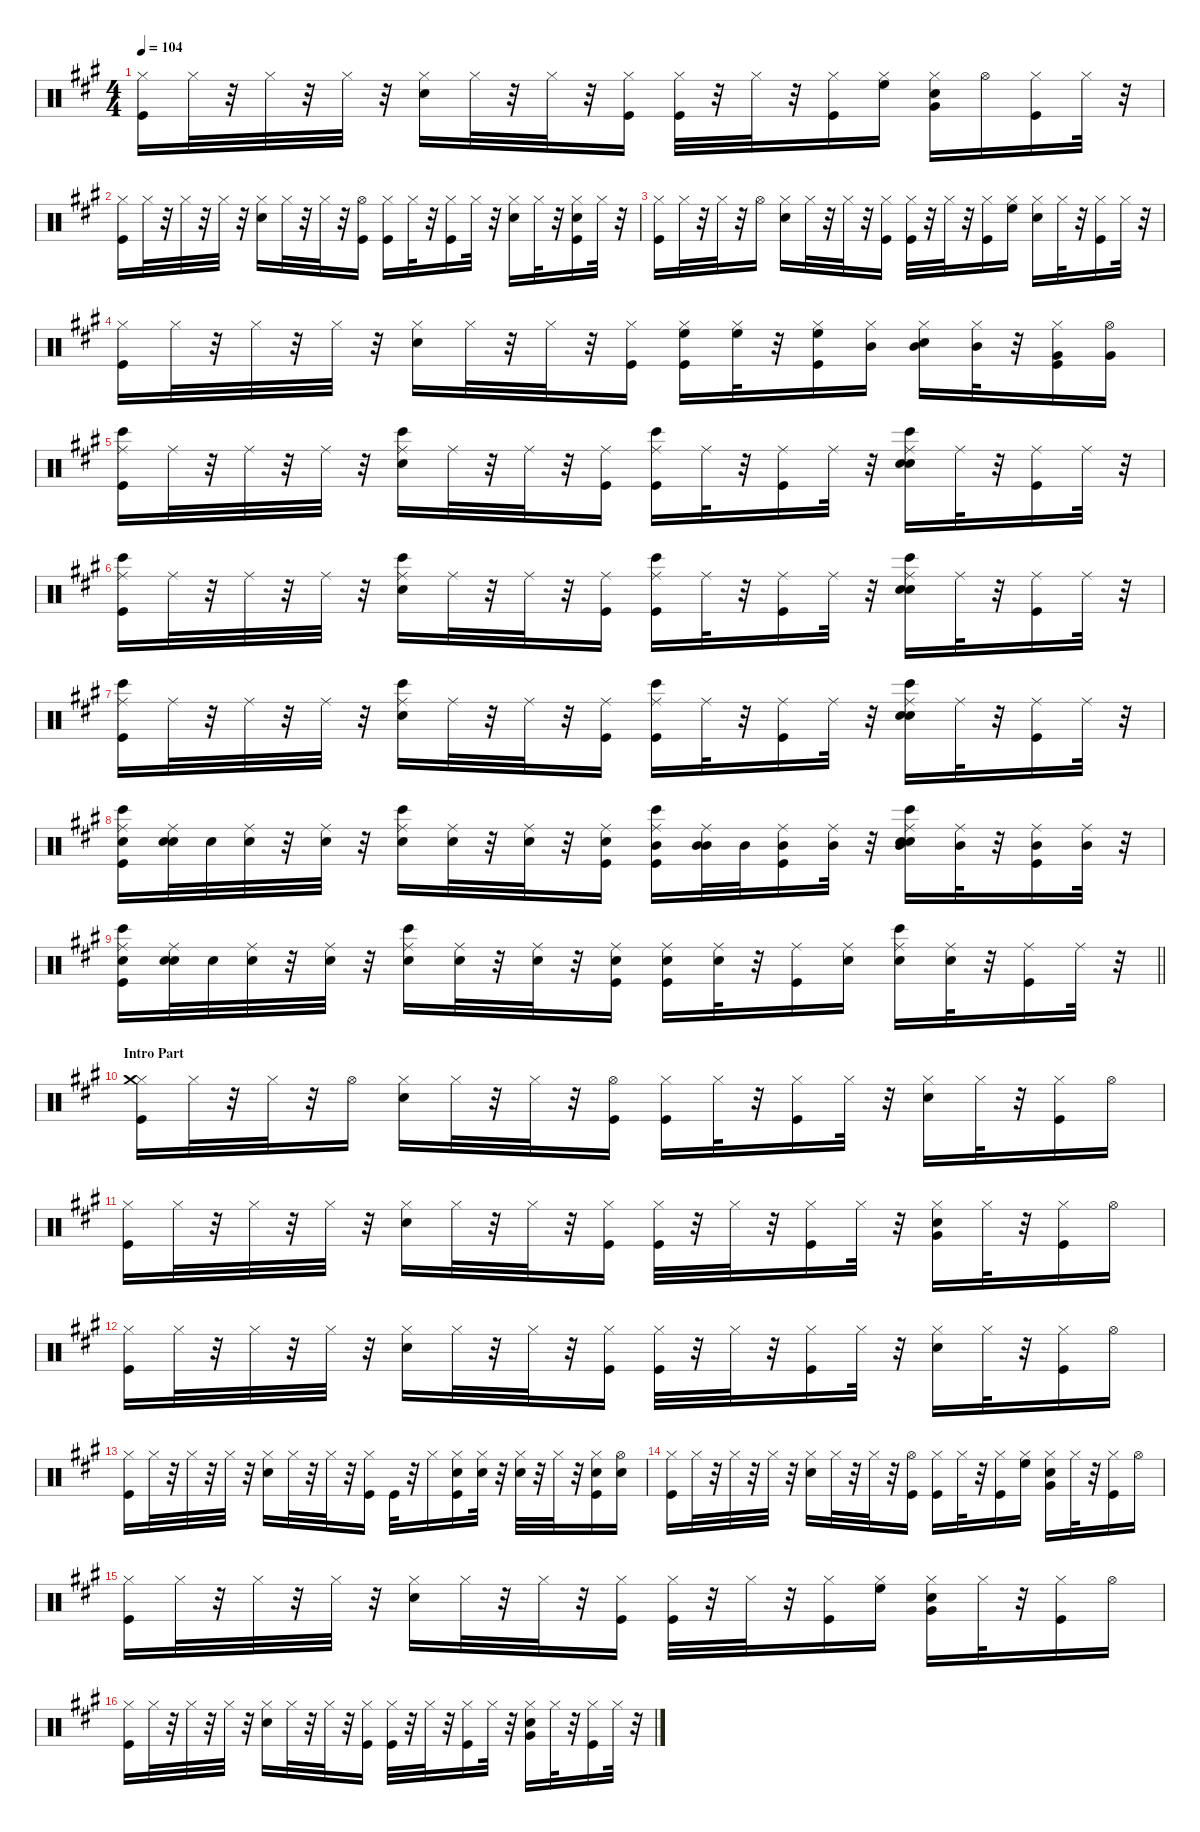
\defaultSystemsLayout 4
\hideDynamics
\bracketExtendMode nobrackets
\singleTrackTrackNamePolicy hidden
\multiTrackTrackNamePolicy hidden
\otherSystemsTrackNameOrientation horizontal
\track ("Drums   " "drm.") {instrument percussion}
\staff {score}
\articulation defaults
\ts (4 4)
\tempo 104
\clef neutral
\ks a
("Kick (hit)"{acc forcenatural} "Hi-Hat (closed)"{acc forcenatural}).16{dy f beam Down} "Hi-Hat (closed)"{acc forcenatural}.32{dy mp beam Down} r.32{beam Down} "Hi-Hat (closed)"{acc forcenatural}.32{dy f beam Down} r.32{beam Down} "Hi-Hat (closed)"{acc forcenatural}.32{beam Down} r.32{beam Down} ("Snare (hit) 2"{acc forcenatural} "Hi-Hat (closed)"{acc forcenatural}).16{dy fff beam Down} "Hi-Hat (closed)"{acc forcenatural}.32{dy mp beam Down} r.32{beam Down} "Hi-Hat (closed)"{acc forcenatural}.32{dy f beam Down} r.32{beam Down} ("Kick (hit)"{acc forcenatural} "Hi-Hat (closed)"{acc forcenatural}).16{dy mf beam Down} ("Kick (hit)"{acc forcenatural} "Hi-Hat (closed)"{acc forcenatural}).32{dy f beam Down} r.32{beam Down} "Hi-Hat (closed)"{acc forcenatural}.32{dy mp beam Down} r.32{beam Down} ("Kick (hit)"{acc forcenatural} "Hi-Hat (closed)"{acc forcenatural}).16{dy f beam Down} ("Hi-Hat (closed)"{acc forcenatural} "High Floor Tom (hit)"{acc forcenatural}).16{beam Down} ("Snare (hit) 2"{acc forcenatural} "Hi-Hat (closed)"{acc forcenatural} "Very Low Tom (hit)"{acc forcenatural}).16{dy fff beam Down} "Hi-Hat (open)"{acc forcenatural}.16{dy mp beam Down} ("Kick (hit)"{acc forcenatural} "Hi-Hat (closed)"{acc forcenatural}).16{dy f beam Down} "Hi-Hat (closed)"{acc forcenatural}.32{beam Down} r.32{beam Down} |
("Kick (hit)"{acc forcenatural} "Hi-Hat (closed)"{acc forcenatural}).16{beam Down} "Hi-Hat (closed)"{acc forcenatural}.32{dy mp beam Down} r.32{beam Down} "Hi-Hat (closed)"{acc forcenatural}.32{dy f beam Down} r.32{beam Down} "Hi-Hat (closed)"{acc forcenatural}.32{beam Down} r.32{beam Down} ("Snare (hit) 2"{acc forcenatural} "Hi-Hat (closed)"{acc forcenatural}).16{dy fff beam Down} "Hi-Hat (closed)"{acc forcenatural}.32{dy mp beam Down} r.32{beam Down} "Hi-Hat (closed)"{acc forcenatural}.32{dy f beam Down} r.32{beam Down} ("Kick (hit)"{acc forcenatural} "Hi-Hat (open)"{acc forcenatural}).16{dy mf beam Down} ("Kick (hit)"{acc forcenatural} "Hi-Hat (closed)"{acc forcenatural}).16{dy f beam Down} "Hi-Hat (closed)"{acc forcenatural}.32{dy mp beam Down} r.32{beam Down} ("Kick (hit)"{acc forcenatural} "Hi-Hat (closed)"{acc forcenatural}).16{dy f beam Down} "Hi-Hat (closed)"{acc forcenatural}.32{beam Down} r.32{beam Down} ("Snare (hit) 2"{acc forcenatural} "Hi-Hat (closed)"{acc forcenatural}).16{dy fff beam Down} "Hi-Hat (closed)"{acc forcenatural}.32{dy mp beam Down} r.32{beam Down} ("Kick (hit)"{acc forcenatural} "Snare (hit) 2"{acc forcenatural} "Hi-Hat (closed)"{acc forcenatural}).16{dy f beam Down} "Hi-Hat (closed)"{acc forcenatural}.32{beam Down} r.32{beam Down} |
("Kick (hit)"{acc forcenatural} "Hi-Hat (closed)"{acc forcenatural}).16{beam Down} "Hi-Hat (closed)"{acc forcenatural}.32{dy mp beam Down} r.32{beam Down} "Hi-Hat (closed)"{acc forcenatural}.32{dy f beam Down} r.32{beam Down} "Hi-Hat (open)"{acc forcenatural}.16{beam Down} ("Snare (hit) 2"{acc forcenatural} "Hi-Hat (closed)"{acc forcenatural}).16{dy fff beam Down} "Hi-Hat (closed)"{acc forcenatural}.32{dy mp beam Down} r.32{beam Down} "Hi-Hat (closed)"{acc forcenatural}.32{dy f beam Down} r.32{beam Down} ("Kick (hit)"{acc forcenatural} "Hi-Hat (closed)"{acc forcenatural}).16{dy mf beam Down} ("Kick (hit)"{acc forcenatural} "Hi-Hat (closed)"{acc forcenatural}).32{dy f beam Down} r.32{beam Down} "Hi-Hat (closed)"{acc forcenatural}.32{dy mp beam Down} r.32{beam Down} ("Kick (hit)"{acc forcenatural} "Hi-Hat (closed)"{acc forcenatural}).16{dy f beam Down} ("Hi-Hat (closed)"{acc forcenatural} "High Floor Tom (hit)"{acc forcenatural}).16{beam Down} ("Snare (hit) 2"{acc forcenatural} "Hi-Hat (closed)"{acc forcenatural}).16{dy fff beam Down} "Hi-Hat (closed)"{acc forcenatural}.32{dy mp beam Down} r.32{beam Down} ("Kick (hit)"{acc forcenatural} "Hi-Hat (closed)"{acc forcenatural}).16{dy f beam Down} "Hi-Hat (closed)"{acc forcenatural}.32{beam Down} r.32{beam Down} |
("Kick (hit)"{acc forcenatural} "Hi-Hat (closed)"{acc forcenatural}).16{beam Down} "Hi-Hat (closed)"{acc forcenatural}.32{dy mp beam Down} r.32{beam Down} "Hi-Hat (closed)"{acc forcenatural}.32{dy f beam Down} r.32{beam Down} "Hi-Hat (closed)"{acc forcenatural}.32{beam Down} r.32{beam Down} ("Snare (hit) 2"{acc forcenatural} "Hi-Hat (closed)"{acc forcenatural}).16{dy fff beam Down} "Hi-Hat (closed)"{acc forcenatural}.32{dy mp beam Down} r.32{beam Down} "Hi-Hat (closed)"{acc forcenatural}.32{dy f beam Down} r.32{beam Down} ("Kick (hit)"{acc forcenatural} "Hi-Hat (closed)"{acc forcenatural}).16{dy mf beam Down} ("Kick (hit)"{acc forcenatural} "Hi-Hat (closed)"{acc forcenatural} "High Floor Tom (hit)"{acc forcenatural}).16{dy f beam Down} ("Hi-Hat (closed)"{acc forcenatural} "High Floor Tom (hit)"{acc forcenatural}).32{dy mp beam Down} r.32{beam Down} ("Kick (hit)"{acc forcenatural} "Hi-Hat (closed)"{acc forcenatural} "High Floor Tom (hit)"{acc forcenatural}).16{dy f beam Down} ("Hi-Hat (closed)"{acc forcenatural} "Mid Tom (hit)"{acc forcenatural}).16{beam Down} ("Snare (hit) 2"{acc forcenatural} "Hi-Hat (closed)"{acc forcenatural} "Mid Tom (hit)"{acc forcenatural}).16{dy fff beam Down} ("Hi-Hat (closed)"{acc forcenatural} "Mid Tom (hit)"{acc forcenatural}).32{dy mp beam Down} r.32{beam Down} ("Kick (hit)"{acc forcenatural} "Hi-Hat (closed)"{acc forcenatural} "Very Low Tom (hit)"{acc forcenatural}).16{dy f beam Down} ("Very Low Tom (hit)"{acc forcenatural} "Hi-Hat (open)"{acc forcenatural}).16{beam Down} |
("Kick (hit)"{acc forcenatural} "Ride (middle)"{acc forcenatural} "Bongo High (hit)"{acc forcenatural}).16{beam Down} "Ride (middle)"{acc forcenatural}.32{dy mp beam Down} r.32{beam Down} "Ride (middle)"{acc forcenatural}.32{beam Down} r.32{beam Down} "Ride (middle)"{acc forcenatural}.32{beam Down} r.32{beam Down} ("Snare (hit) 2"{acc forcenatural} "Ride (middle)"{acc forcenatural} "Bongo High (hit)"{acc forcenatural}).16{dy fff beam Down} "Ride (middle)"{acc forcenatural}.32{dy mp beam Down} r.32{beam Down} "Ride (middle)"{acc forcenatural}.32{beam Down} r.32{beam Down} ("Kick (hit)"{acc forcenatural} "Ride (middle)"{acc forcenatural}).16{dy mf beam Down} ("Kick (hit)"{acc forcenatural} "Ride (middle)"{acc forcenatural} "Bongo High (hit)"{acc forcenatural}).16{dy f beam Down} "Ride (middle)"{acc forcenatural}.32{dy mp beam Down} r.32{beam Down} ("Kick (hit)"{acc forcenatural} "Ride (middle)"{acc forcenatural}).16{dy f beam Down} "Ride (middle)"{acc forcenatural}.32{dy mp beam Down} r.32{beam Down} ("Hand Clap (hit)"{acc forcenatural} "Snare (hit) 2"{acc forcenatural} "Ride (middle)"{acc forcenatural} "Bongo High (hit)"{acc forcenatural}).16{dy f beam Down} "Ride (middle)"{acc forcenatural}.32{dy mp beam Down} r.32{beam Down} ("Kick (hit)"{acc forcenatural} "Ride (middle)"{acc forcenatural}).16{dy f beam Down} "Ride (middle)"{acc forcenatural}.32{dy mp beam Down} r.32{beam Down} |
("Kick (hit)"{acc forcenatural} "Ride (middle)"{acc forcenatural} "Bongo High (hit)"{acc forcenatural}).16{dy f beam Down} "Ride (middle)"{acc forcenatural}.32{dy mp beam Down} r.32{beam Down} "Ride (middle)"{acc forcenatural}.32{beam Down} r.32{beam Down} "Ride (middle)"{acc forcenatural}.32{beam Down} r.32{beam Down} ("Snare (hit) 2"{acc forcenatural} "Ride (middle)"{acc forcenatural} "Bongo High (hit)"{acc forcenatural}).16{dy fff beam Down} "Ride (middle)"{acc forcenatural}.32{dy mp beam Down} r.32{beam Down} "Ride (middle)"{acc forcenatural}.32{beam Down} r.32{beam Down} ("Kick (hit)"{acc forcenatural} "Ride (middle)"{acc forcenatural}).16{dy mf beam Down} ("Kick (hit)"{acc forcenatural} "Ride (middle)"{acc forcenatural} "Bongo High (hit)"{acc forcenatural}).16{dy f beam Down} "Ride (middle)"{acc forcenatural}.32{dy mp beam Down} r.32{beam Down} ("Kick (hit)"{acc forcenatural} "Ride (middle)"{acc forcenatural}).16{dy f beam Down} "Ride (middle)"{acc forcenatural}.32{dy mp beam Down} r.32{beam Down} ("Hand Clap (hit)"{acc forcenatural} "Snare (hit) 2"{acc forcenatural} "Ride (middle)"{acc forcenatural} "Bongo High (hit)"{acc forcenatural}).16{dy f beam Down} "Ride (middle)"{acc forcenatural}.32{dy mp beam Down} r.32{beam Down} ("Kick (hit)"{acc forcenatural} "Ride (middle)"{acc forcenatural}).16{dy f beam Down} "Ride (middle)"{acc forcenatural}.32{dy mp beam Down} r.32{beam Down} |
("Kick (hit)"{acc forcenatural} "Ride (middle)"{acc forcenatural} "Bongo High (hit)"{acc forcenatural}).16{dy f beam Down} "Ride (middle)"{acc forcenatural}.32{dy mp beam Down} r.32{beam Down} "Ride (middle)"{acc forcenatural}.32{beam Down} r.32{beam Down} "Ride (middle)"{acc forcenatural}.32{beam Down} r.32{beam Down} ("Snare (hit) 2"{acc forcenatural} "Ride (middle)"{acc forcenatural} "Bongo High (hit)"{acc forcenatural}).16{dy fff beam Down} "Ride (middle)"{acc forcenatural}.32{dy mp beam Down} r.32{beam Down} "Ride (middle)"{acc forcenatural}.32{beam Down} r.32{beam Down} ("Kick (hit)"{acc forcenatural} "Ride (middle)"{acc forcenatural}).16{dy mf beam Down} ("Kick (hit)"{acc forcenatural} "Ride (middle)"{acc forcenatural} "Bongo High (hit)"{acc forcenatural}).16{dy f beam Down} "Ride (middle)"{acc forcenatural}.32{dy mp beam Down} r.32{beam Down} ("Kick (hit)"{acc forcenatural} "Ride (middle)"{acc forcenatural}).16{dy f beam Down} "Ride (middle)"{acc forcenatural}.32{dy mp beam Down} r.32{beam Down} ("Hand Clap (hit)"{acc forcenatural} "Snare (hit) 2"{acc forcenatural} "Ride (middle)"{acc forcenatural} "Bongo High (hit)"{acc forcenatural}).16{dy f beam Down} "Ride (middle)"{acc forcenatural}.32{dy mp beam Down} r.32{beam Down} ("Kick (hit)"{acc forcenatural} "Ride (middle)"{acc forcenatural}).16{dy f beam Down} "Ride (middle)"{acc forcenatural}.32{dy mp beam Down} r.32{beam Down} |
("Kick (hit)"{acc forcenatural} "Snare (hit) 2"{acc forcenatural} "Ride (middle)"{acc forcenatural} "Bongo High (hit)"{acc forcenatural}).16{dy f beam Down} ("Snare (hit) 2"{acc forcenatural} "Ride (middle)"{acc forcenatural} "Snare (hit) 2"{acc forcenatural}).32{beam Down} "Snare (hit) 2"{acc forcenatural}.32{beam Down} ("Snare (hit) 2"{acc forcenatural} "Ride (middle)"{acc forcenatural}).32{dy ff beam Down} r.32{beam Down} ("Snare (hit) 2"{acc forcenatural} "Ride (middle)"{acc forcenatural}).32{dy f beam Down} r.32{beam Down} ("Snare (hit) 2"{acc forcenatural} "Ride (middle)"{acc forcenatural} "Bongo High (hit)"{acc forcenatural}).16{dy fff beam Down} ("Snare (hit) 2"{acc forcenatural} "Ride (middle)"{acc forcenatural}).32{dy f beam Down} r.32{beam Down} ("Snare (hit) 2"{acc forcenatural} "Ride (middle)"{acc forcenatural}).32{dy ff beam Down} r.32{beam Down} ("Kick (hit)"{acc forcenatural} "Snare (hit) 2"{acc forcenatural} "Ride (middle)"{acc forcenatural}).16{dy mf beam Down} ("Kick (hit)"{acc forcenatural} "Mid Tom (hit)"{acc forcenatural} "Ride (middle)"{acc forcenatural} "Bongo High (hit)"{acc forcenatural}).16{dy f beam Down} ("Mid Tom (hit)"{acc forcenatural} "Ride (middle)"{acc forcenatural} "Mid Tom (hit)"{acc forcenatural}).32{beam Down} "Mid Tom (hit)"{acc forcenatural}.32{beam Down} ("Kick (hit)"{acc forcenatural} "Mid Tom (hit)"{acc forcenatural} "Ride (middle)"{acc forcenatural}).16{beam Down} ("Mid Tom (hit)"{acc forcenatural} "Ride (middle)"{acc forcenatural}).32{beam Down} r.32{beam Down} ("Hand Clap (hit)"{acc forcenatural} "Snare (hit) 2"{acc forcenatural} "Mid Tom (hit)"{acc forcenatural} "Ride (middle)"{acc forcenatural} "Bongo High (hit)"{acc forcenatural}).16{beam Down} ("Mid Tom (hit)"{acc forcenatural} "Ride (middle)"{acc forcenatural}).32{beam Down} r.32{beam Down} ("Kick (hit)"{acc forcenatural} "Mid Tom (hit)"{acc forcenatural} "Ride (middle)"{acc forcenatural}).16{beam Down} ("Mid Tom (hit)"{acc forcenatural} "Ride (middle)"{acc forcenatural}).32{dy ff beam Down} r.32{beam Down} |
\barLineRight lightlight
("Kick (hit)"{acc forcenatural} "Snare (hit) 2"{acc forcenatural} "Ride (middle)"{acc forcenatural} "Bongo High (hit)"{acc forcenatural}).16{dy f beam Down} ("Snare (hit) 2"{acc forcenatural} "Ride (middle)"{acc forcenatural} "Snare (hit) 2"{acc forcenatural}).32{beam Down} "Snare (hit) 2"{acc forcenatural}.32{beam Down} ("Snare (hit) 2"{acc forcenatural} "Ride (middle)"{acc forcenatural}).32{dy ff beam Down} r.32{beam Down} ("Snare (hit) 2"{acc forcenatural} "Ride (middle)"{acc forcenatural}).32{dy f beam Down} r.32{beam Down} ("Snare (hit) 2"{acc forcenatural} "Ride (middle)"{acc forcenatural} "Bongo High (hit)"{acc forcenatural}).16{dy fff beam Down} ("Snare (hit) 2"{acc forcenatural} "Ride (middle)"{acc forcenatural}).32{dy f beam Down} r.32{beam Down} ("Snare (hit) 2"{acc forcenatural} "Ride (middle)"{acc forcenatural}).32{dy ff beam Down} r.32{beam Down} ("Kick (hit)"{acc forcenatural} "Snare (hit) 2"{acc forcenatural} "Ride (middle)"{acc forcenatural}).16{dy mf beam Down} ("Kick (hit)"{acc forcenatural} "Snare (hit) 2"{acc forcenatural} "Ride (middle)"{acc forcenatural}).16{dy f beam Down} ("Snare (hit) 2"{acc forcenatural} "Ride (middle)"{acc forcenatural}).32{beam Down} r.32{beam Down} ("Kick (hit)"{acc forcenatural} "Ride (middle)"{acc forcenatural}).16{beam Down} ("Snare (hit) 2"{acc forcenatural} "Ride (middle)"{acc forcenatural}).16{beam Down} ("Snare (hit) 2"{acc forcenatural} "Ride (middle)"{acc forcenatural} "Bongo High (hit)"{acc forcenatural}).16{dy fff beam Down} ("Snare (hit) 2"{acc forcenatural} "Ride (middle)"{acc forcenatural}).32{dy f beam Down} r.32{beam Down} ("Kick (hit)"{acc forcenatural} "Ride (middle)"{acc forcenatural}).16{beam Down} "Ride (middle)"{acc forcenatural}.32{dy mp beam Down} r.32{beam Down} |
\section ("" "Intro Part")
("Kick (hit)"{acc forcenatural} "Hi-Hat (closed)"{acc forcenatural} "Crash medium (hit)"{acc forcenatural}).16{dy f beam Down} "Hi-Hat (closed)"{acc forcenatural}.32{dy mp beam Down} r.32{beam Down} "Hi-Hat (closed)"{acc forcenatural}.32{dy f beam Down} r.32{beam Down} "Hi-Hat (open)"{acc forcenatural}.16{beam Down} ("Snare (hit) 2"{acc forcenatural} "Hi-Hat (closed)"{acc forcenatural}).16{dy fff beam Down} "Hi-Hat (closed)"{acc forcenatural}.32{dy mp beam Down} r.32{beam Down} "Hi-Hat (closed)"{acc forcenatural}.32{dy f beam Down} r.32{beam Down} ("Kick (hit)"{acc forcenatural} "Hi-Hat (open)"{acc forcenatural}).16{dy mf beam Down} ("Kick (hit)"{acc forcenatural} "Hi-Hat (closed)"{acc forcenatural}).16{dy f beam Down} "Hi-Hat (closed)"{acc forcenatural}.32{dy mp beam Down} r.32{beam Down} ("Kick (hit)"{acc forcenatural} "Hi-Hat (closed)"{acc forcenatural}).16{dy f beam Down} "Hi-Hat (closed)"{acc forcenatural}.32{beam Down} r.32{beam Down} ("Snare (hit) 2"{acc forcenatural} "Hi-Hat (closed)"{acc forcenatural}).16{dy fff beam Down} "Hi-Hat (closed)"{acc forcenatural}.32{dy mp beam Down} r.32{beam Down} ("Kick (hit)"{acc forcenatural} "Hi-Hat (closed)"{acc forcenatural}).16{dy f beam Down} "Hi-Hat (open)"{acc forcenatural}.16{beam Down} |
("Kick (hit)"{acc forcenatural} "Hi-Hat (closed)"{acc forcenatural}).16{beam Down} "Hi-Hat (closed)"{acc forcenatural}.32{dy mp beam Down} r.32{beam Down} "Hi-Hat (closed)"{acc forcenatural}.32{dy f beam Down} r.32{beam Down} "Hi-Hat (closed)"{acc forcenatural}.32{beam Down} r.32{beam Down} ("Snare (hit) 2"{acc forcenatural} "Hi-Hat (closed)"{acc forcenatural}).16{dy fff beam Down} "Hi-Hat (closed)"{acc forcenatural}.32{dy mp beam Down} r.32{beam Down} "Hi-Hat (closed)"{acc forcenatural}.32{dy f beam Down} r.32{beam Down} ("Kick (hit)"{acc forcenatural} "Hi-Hat (closed)"{acc forcenatural}).16{dy mf beam Down} ("Kick (hit)"{acc forcenatural} "Hi-Hat (closed)"{acc forcenatural}).32{dy f beam Down} r.32{beam Down} "Hi-Hat (closed)"{acc forcenatural}.32{dy mp beam Down} r.32{beam Down} ("Kick (hit)"{acc forcenatural} "Hi-Hat (closed)"{acc forcenatural}).16{dy f beam Down} "Hi-Hat (closed)"{acc forcenatural}.32{beam Down} r.32{beam Down} ("Snare (hit) 2"{acc forcenatural} "Hi-Hat (closed)"{acc forcenatural} "Very Low Tom (hit)"{acc forcenatural}).16{dy fff beam Down} "Hi-Hat (closed)"{acc forcenatural}.32{dy mp beam Down} r.32{beam Down} ("Kick (hit)"{acc forcenatural} "Hi-Hat (closed)"{acc forcenatural}).16{dy f beam Down} "Hi-Hat (open)"{acc forcenatural}.16{beam Down} |
("Kick (hit)"{acc forcenatural} "Hi-Hat (closed)"{acc forcenatural}).16{beam Down} "Hi-Hat (closed)"{acc forcenatural}.32{dy mp beam Down} r.32{beam Down} "Hi-Hat (closed)"{acc forcenatural}.32{dy f beam Down} r.32{beam Down} "Hi-Hat (closed)"{acc forcenatural}.32{beam Down} r.32{beam Down} ("Snare (hit) 2"{acc forcenatural} "Hi-Hat (closed)"{acc forcenatural}).16{dy fff beam Down} "Hi-Hat (closed)"{acc forcenatural}.32{dy mp beam Down} r.32{beam Down} "Hi-Hat (closed)"{acc forcenatural}.32{dy f beam Down} r.32{beam Down} ("Kick (hit)"{acc forcenatural} "Hi-Hat (closed)"{acc forcenatural}).16{dy mf beam Down} ("Kick (hit)"{acc forcenatural} "Hi-Hat (closed)"{acc forcenatural}).32{dy f beam Down} r.32{beam Down} "Hi-Hat (closed)"{acc forcenatural}.32{dy mp beam Down} r.32{beam Down} ("Kick (hit)"{acc forcenatural} "Hi-Hat (closed)"{acc forcenatural}).16{dy f beam Down} "Hi-Hat (closed)"{acc forcenatural}.32{beam Down} r.32{beam Down} ("Snare (hit) 2"{acc forcenatural} "Hi-Hat (closed)"{acc forcenatural}).16{dy fff beam Down} "Hi-Hat (closed)"{acc forcenatural}.32{dy mp beam Down} r.32{beam Down} ("Kick (hit)"{acc forcenatural} "Hi-Hat (closed)"{acc forcenatural}).16{dy f beam Down} "Hi-Hat (open)"{acc forcenatural}.16{beam Down} |
("Kick (hit)"{acc forcenatural} "Hi-Hat (closed)"{acc forcenatural}).16{beam Down} "Hi-Hat (closed)"{acc forcenatural}.32{dy mp beam Down} r.32{beam Down} "Hi-Hat (closed)"{acc forcenatural}.32{dy f beam Down} r.32{beam Down} "Hi-Hat (closed)"{acc forcenatural}.32{beam Down} r.32{beam Down} ("Snare (hit) 2"{acc forcenatural} "Hi-Hat (closed)"{acc forcenatural}).16{dy fff beam Down} "Hi-Hat (closed)"{acc forcenatural}.32{dy mp beam Down} r.32{beam Down} "Hi-Hat (closed)"{acc forcenatural}.32{dy f beam Down} r.32{beam Down} ("Kick (hit)"{acc forcenatural} "Hi-Hat (closed)"{acc forcenatural}).16{dy mf beam Down} "Kick (hit)"{acc forcenatural}.32{dy f beam Down} r.32{beam Down} "Hi-Hat (closed)"{acc forcenatural}.16{dy mp beam Down} ("Kick (hit)"{acc forcenatural} "Snare (hit) 2"{acc forcenatural} "Hi-Hat (closed)"{acc forcenatural}).16{dy f beam Down} ("Snare (hit) 2"{acc forcenatural} "Hi-Hat (closed)"{acc forcenatural}).32{beam Down} r.32{beam Down} ("Snare (hit) 2"{acc forcenatural} "Hi-Hat (closed)"{acc forcenatural}).32{dy fff beam Down} r.32{beam Down} "Hi-Hat (closed)"{acc forcenatural}.32{dy mp beam Down} r.32{beam Down} ("Kick (hit)"{acc forcenatural} "Snare (hit) 2"{acc forcenatural} "Hi-Hat (closed)"{acc forcenatural}).16{dy f beam Down} ("Snare (hit) 2"{acc forcenatural} "Hi-Hat (open)"{acc forcenatural}).16{dy ff beam Down} |
("Kick (hit)"{acc forcenatural} "Hi-Hat (closed)"{acc forcenatural}).16{dy f beam Down} "Hi-Hat (closed)"{acc forcenatural}.32{dy mp beam Down} r.32{beam Down} "Hi-Hat (closed)"{acc forcenatural}.32{dy f beam Down} r.32{beam Down} "Hi-Hat (closed)"{acc forcenatural}.32{beam Down} r.32{beam Down} ("Snare (hit) 2"{acc forcenatural} "Hi-Hat (closed)"{acc forcenatural}).16{dy fff beam Down} "Hi-Hat (closed)"{acc forcenatural}.32{dy mp beam Down} r.32{beam Down} "Hi-Hat (closed)"{acc forcenatural}.32{dy f beam Down} r.32{beam Down} ("Kick (hit)"{acc forcenatural} "Hi-Hat (open)"{acc forcenatural}).16{dy mf beam Down} ("Kick (hit)"{acc forcenatural} "Hi-Hat (closed)"{acc forcenatural}).16{dy f beam Down} "Hi-Hat (closed)"{acc forcenatural}.32{dy mp beam Down} r.32{beam Down} ("Kick (hit)"{acc forcenatural} "Hi-Hat (closed)"{acc forcenatural}).16{dy f beam Down} ("Hi-Hat (closed)"{acc forcenatural} "High Floor Tom (hit)"{acc forcenatural}).16{beam Down} ("Snare (hit) 2"{acc forcenatural} "Hi-Hat (closed)"{acc forcenatural} "Very Low Tom (hit)"{acc forcenatural}).16{dy fff beam Down} "Hi-Hat (closed)"{acc forcenatural}.32{dy mp beam Down} r.32{beam Down} ("Kick (hit)"{acc forcenatural} "Hi-Hat (closed)"{acc forcenatural}).16{dy f beam Down} "Hi-Hat (open)"{acc forcenatural}.16{beam Down} |
("Kick (hit)"{acc forcenatural} "Hi-Hat (closed)"{acc forcenatural}).16{beam Down} "Hi-Hat (closed)"{acc forcenatural}.32{dy mp beam Down} r.32{beam Down} "Hi-Hat (closed)"{acc forcenatural}.32{dy f beam Down} r.32{beam Down} "Hi-Hat (closed)"{acc forcenatural}.32{beam Down} r.32{beam Down} ("Snare (hit) 2"{acc forcenatural} "Hi-Hat (closed)"{acc forcenatural}).16{dy fff beam Down} "Hi-Hat (closed)"{acc forcenatural}.32{dy mp beam Down} r.32{beam Down} "Hi-Hat (closed)"{acc forcenatural}.32{dy f beam Down} r.32{beam Down} ("Kick (hit)"{acc forcenatural} "Hi-Hat (closed)"{acc forcenatural}).16{dy mf beam Down} ("Kick (hit)"{acc forcenatural} "Hi-Hat (closed)"{acc forcenatural}).32{dy f beam Down} r.32{beam Down} "Hi-Hat (closed)"{acc forcenatural}.32{dy mp beam Down} r.32{beam Down} ("Kick (hit)"{acc forcenatural} "Hi-Hat (closed)"{acc forcenatural}).16{dy f beam Down} ("Hi-Hat (closed)"{acc forcenatural} "High Floor Tom (hit)"{acc forcenatural}).16{beam Down} ("Snare (hit) 2"{acc forcenatural} "Hi-Hat (closed)"{acc forcenatural} "Very Low Tom (hit)"{acc forcenatural}).16{dy fff beam Down} "Hi-Hat (closed)"{acc forcenatural}.32{dy mp beam Down} r.32{beam Down} ("Kick (hit)"{acc forcenatural} "Hi-Hat (closed)"{acc forcenatural}).16{dy f beam Down} "Hi-Hat (open)"{acc forcenatural}.16{beam Down} |
("Kick (hit)"{acc forcenatural} "Hi-Hat (closed)"{acc forcenatural}).16{beam Down} "Hi-Hat (closed)"{acc forcenatural}.32{dy mp beam Down} r.32{beam Down} "Hi-Hat (closed)"{acc forcenatural}.32{dy f beam Down} r.32{beam Down} "Hi-Hat (closed)"{acc forcenatural}.32{beam Down} r.32{beam Down} ("Snare (hit) 2"{acc forcenatural} "Hi-Hat (closed)"{acc forcenatural}).16{dy fff beam Down} "Hi-Hat (closed)"{acc forcenatural}.32{dy mp beam Down} r.32{beam Down} "Hi-Hat (closed)"{acc forcenatural}.32{dy f beam Down} r.32{beam Down} ("Kick (hit)"{acc forcenatural} "Hi-Hat (closed)"{acc forcenatural}).16{dy mf beam Down} ("Kick (hit)"{acc forcenatural} "Hi-Hat (closed)"{acc forcenatural}).32{dy f beam Down} r.32{beam Down} "Hi-Hat (closed)"{acc forcenatural}.32{dy mp beam Down} r.32{beam Down} ("Kick (hit)"{acc forcenatural} "Hi-Hat (closed)"{acc forcenatural}).16{dy f beam Down} "Hi-Hat (closed)"{acc forcenatural}.32{beam Down} r.32{beam Down} ("Snare (hit) 2"{acc forcenatural} "Hi-Hat (closed)"{acc forcenatural} "Very Low Tom (hit)"{acc forcenatural}).16{dy fff beam Down} "Hi-Hat (closed)"{acc forcenatural}.32{dy mp beam Down} r.32{beam Down} ("Kick (hit)"{acc forcenatural} "Hi-Hat (closed)"{acc forcenatural}).16{dy f beam Down} "Hi-Hat (closed)"{acc forcenatural}.32{beam Down} r.32{beam Down}
